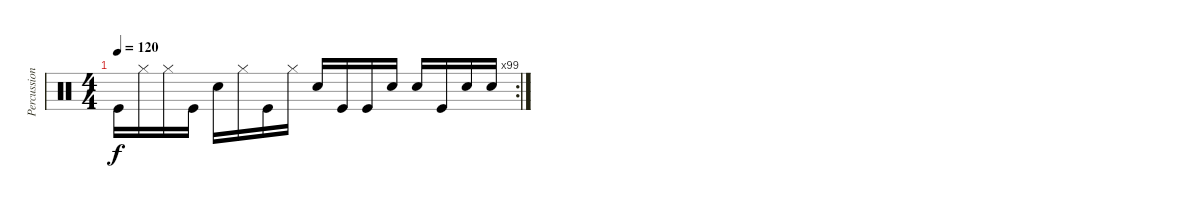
\track ("Percussion" "Percussion") {instrument percussion}
\staff {score}
\articulation defaults
\rc 99
\ts (4 4)
\tempo 120
\clef neutral
\ks c "Kick (hit)".16{dy f} "Hi-Hat (closed)".16 "Hi-Hat (closed)".16 "Kick (hit)".16 "Snare (hit) 2".16 "Hi-Hat (closed)".16 "Kick (hit)".16 "Hi-Hat (closed)".16 "Snare (hit) 2".16 "Kick (hit)".16 "Kick (hit)".16 "Snare (hit) 2".16 "Snare (hit) 2".16 "Kick (hit)".16 "Snare (hit) 2".16 "Snare (hit) 2".16
